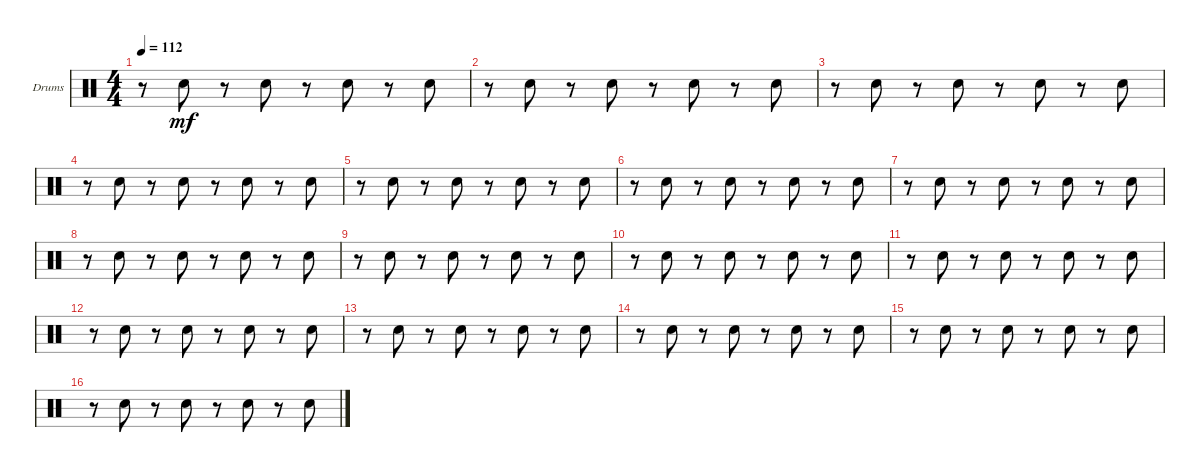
\defaultSystemsLayout 4
\bracketExtendMode groupsimilarinstruments
\firstSystemTrackNameOrientation horizontal
\otherSystemsTrackNameOrientation horizontal
\track ("Drumkit" "Drums") {instrument percussion}
\staff {score}
\articulation defaults
\ts (4 4)
\tempo 112
\clef neutral
\scale
0.333333
\ks c
r.8{dy mf} "Snare (hit) 2".8 r.8 "Snare (hit) 2".8 r.8 "Snare (hit) 2".8 r.8 "Snare (hit) 2".8 |
\scale
0.333333 r.8 "Snare (hit) 2".8 r.8 "Snare (hit) 2".8 r.8 "Snare (hit) 2".8 r.8 "Snare (hit) 2".8 |
\scale
0.333333 r.8 "Snare (hit) 2".8 r.8 "Snare (hit) 2".8 r.8 "Snare (hit) 2".8 r.8 "Snare (hit) 2".8 |
\scale
0.333333 r.8 "Snare (hit) 2".8 r.8 "Snare (hit) 2".8 r.8 "Snare (hit) 2".8 r.8 "Snare (hit) 2".8 |
\scale
0.333333 r.8 "Snare (hit) 2".8 r.8 "Snare (hit) 2".8 r.8 "Snare (hit) 2".8 r.8 "Snare (hit) 2".8 |
\scale
0.333333 r.8 "Snare (hit) 2".8 r.8 "Snare (hit) 2".8 r.8 "Snare (hit) 2".8 r.8 "Snare (hit) 2".8 |
\scale
0.333333 r.8 "Snare (hit) 2".8 r.8 "Snare (hit) 2".8 r.8 "Snare (hit) 2".8 r.8 "Snare (hit) 2".8 |
\scale
0.333333 r.8 "Snare (hit) 2".8 r.8 "Snare (hit) 2".8 r.8 "Snare (hit) 2".8 r.8 "Snare (hit) 2".8 |
\scale
0.333333 r.8 "Snare (hit) 2".8 r.8 "Snare (hit) 2".8 r.8 "Snare (hit) 2".8 r.8 "Snare (hit) 2".8 |
\scale
0.333333 r.8 "Snare (hit) 2".8 r.8 "Snare (hit) 2".8 r.8 "Snare (hit) 2".8 r.8 "Snare (hit) 2".8 |
\scale
0.333333 r.8 "Snare (hit) 2".8 r.8 "Snare (hit) 2".8 r.8 "Snare (hit) 2".8 r.8 "Snare (hit) 2".8 |
\scale
0.333333 r.8 "Snare (hit) 2".8 r.8 "Snare (hit) 2".8 r.8 "Snare (hit) 2".8 r.8 "Snare (hit) 2".8 |
\scale
0.333333 r.8 "Snare (hit) 2".8 r.8 "Snare (hit) 2".8 r.8 "Snare (hit) 2".8 r.8 "Snare (hit) 2".8 |
\scale
0.333333 r.8 "Snare (hit) 2".8 r.8 "Snare (hit) 2".8 r.8 "Snare (hit) 2".8 r.8 "Snare (hit) 2".8 |
\scale
0.333333 r.8 "Snare (hit) 2".8 r.8 "Snare (hit) 2".8 r.8 "Snare (hit) 2".8 r.8 "Snare (hit) 2".8 |
\scale
0.333333 r.8 "Snare (hit) 2".8 r.8 "Snare (hit) 2".8 r.8 "Snare (hit) 2".8 r.8 "Snare (hit) 2".8
